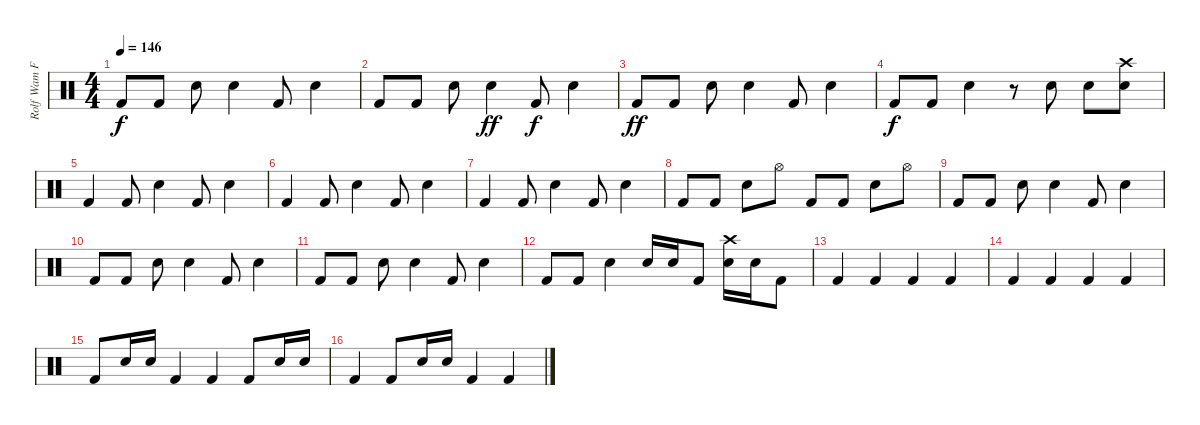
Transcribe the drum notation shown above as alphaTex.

\track ("Rolf Wam Fjell" "Rolf Wam F") {instrument percussion}
\staff {score}
\articulation defaults
\ts (4 4)
\tempo 146
\clef neutral
\ks c "Kick (hit) 2".8{dy f} "Kick (hit) 2".8 "Electric Snare (hit)".8 "Electric Snare (hit)".4 "Kick (hit) 2".8 "Electric Snare (hit)".4
|
"Kick (hit) 2".8 "Kick (hit) 2".8 "Electric Snare (hit)".8 "Electric Snare (hit)".4{dy ff} "Kick (hit) 2".8{dy f} "Electric Snare (hit)".4 |
"Kick (hit) 2".8{dy ff} "Kick (hit) 2".8 "Electric Snare (hit)".8 "Electric Snare (hit)".4 "Kick (hit) 2".8 "Electric Snare (hit)".4 |
"Kick (hit) 2".8{dy f} "Kick (hit) 2".8 "Electric Snare (hit)".4 r.8 "Electric Snare (hit)".8 "Electric Snare (hit)".8 ("Electric Snare (hit)" "Crash high (hit)").8 |
"Kick (hit) 2".4 "Kick (hit) 2".8 "Electric Snare (hit)".4 "Kick (hit) 2".8 "Electric Snare (hit)".4 |
"Kick (hit) 2".4 "Kick (hit) 2".8 "Electric Snare (hit)".4 "Kick (hit) 2".8 "Electric Snare (hit)".4 |
"Kick (hit) 2".4 "Kick (hit) 2".8 "Electric Snare (hit)".4 "Kick (hit) 2".8 "Electric Snare (hit)".4 |
"Kick (hit) 2".8 "Kick (hit) 2".8 "Electric Snare (hit)".8 "Hi-Hat (open)".8 "Kick (hit) 2".8 "Kick (hit) 2".8 "Electric Snare (hit)".8 "Hi-Hat (open)".8 |
"Kick (hit) 2".8 "Kick (hit) 2".8 "Electric Snare (hit)".8 "Electric Snare (hit)".4 "Kick (hit) 2".8 "Electric Snare (hit)".4 |
"Kick (hit) 2".8 "Kick (hit) 2".8 "Electric Snare (hit)".8 "Electric Snare (hit)".4 "Kick (hit) 2".8 "Electric Snare (hit)".4 |
"Kick (hit) 2".8 "Kick (hit) 2".8 "Electric Snare (hit)".8 "Electric Snare (hit)".4 "Kick (hit) 2".8 "Electric Snare (hit)".4 |
"Kick (hit) 2".8 "Kick (hit) 2".8 "Electric Snare (hit)".4 "Electric Snare (hit)".16 "Electric Snare (hit)".16 "Kick (hit) 2".8 ("Electric Snare (hit)" "Crash high (hit)").16 "Electric Snare (hit)".16 "Kick (hit) 2".8 |
"Kick (hit) 2".4 "Kick (hit) 2".4 "Kick (hit) 2".4 "Kick (hit) 2".4 |
"Kick (hit) 2".4 "Kick (hit) 2".4 "Kick (hit) 2".4 "Kick (hit) 2".4 |
"Kick (hit) 2".8 "Electric Snare (hit)".16 "Electric Snare (hit)".16 "Kick (hit) 2".4 "Kick (hit) 2".4 "Kick (hit) 2".8 "Electric Snare (hit)".16 "Electric Snare (hit)".16 |
"Kick (hit) 2".4 "Kick (hit) 2".8 "Electric Snare (hit)".16 "Electric Snare (hit)".16 "Kick (hit) 2".4 "Kick (hit) 2".4
